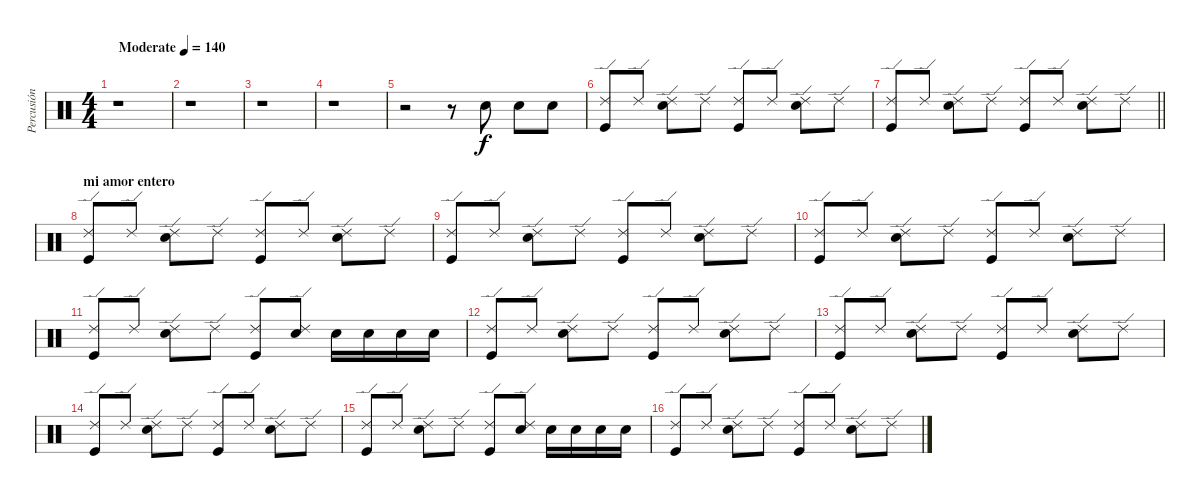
\track ("Percusión" "Percusión") {instrument percussion}
\staff {score}
\articulation defaults
\ts (4 4)
\tempo (140 "Moderate")
\clef neutral
\ks c
r.1{dy f} |
r.1 |
r.1 |
r.1 |
r.2 r.8 "Snare (hit) 2".8 "Snare (hit) 2".8 "Snare (hit) 2".8 |
("Ride (edge) 2" "Kick (hit)").8 "Ride (edge) 2".8 ("Ride (edge) 2" "Snare (hit) 2").8 "Ride (edge) 2".8 ("Ride (edge) 2" "Kick (hit)").8 "Ride (edge) 2".8 ("Ride (edge) 2" "Snare (hit) 2").8 "Ride (edge) 2".8 |
\barLineRight lightlight
("Ride (edge) 2" "Kick (hit)").8 "Ride (edge) 2".8 ("Ride (edge) 2" "Snare (hit) 2").8 "Ride (edge) 2".8 ("Ride (edge) 2" "Kick (hit)").8 "Ride (edge) 2".8 ("Ride (edge) 2" "Snare (hit) 2").8 "Ride (edge) 2".8 |
\section ("" "mi amor entero")
("Ride (edge) 2" "Kick (hit)").8 "Ride (edge) 2".8 ("Ride (edge) 2" "Snare (hit) 2").8 "Ride (edge) 2".8 ("Ride (edge) 2" "Kick (hit)").8 "Ride (edge) 2".8 ("Ride (edge) 2" "Snare (hit) 2").8 "Ride (edge) 2".8 |
("Ride (edge) 2" "Kick (hit)").8 "Ride (edge) 2".8 ("Ride (edge) 2" "Snare (hit) 2").8 "Ride (edge) 2".8 ("Ride (edge) 2" "Kick (hit)").8 "Ride (edge) 2".8 ("Ride (edge) 2" "Snare (hit) 2").8 "Ride (edge) 2".8 |
("Ride (edge) 2" "Kick (hit)").8 "Ride (edge) 2".8 ("Ride (edge) 2" "Snare (hit) 2").8 "Ride (edge) 2".8 ("Ride (edge) 2" "Kick (hit)").8 "Ride (edge) 2".8 ("Ride (edge) 2" "Snare (hit) 2").8 "Ride (edge) 2".8 |
("Ride (edge) 2" "Kick (hit)").8 "Ride (edge) 2".8 ("Ride (edge) 2" "Snare (hit) 2").8 "Ride (edge) 2".8 ("Ride (edge) 2" "Kick (hit)").8 ("Ride (edge) 2" "Snare (hit) 2").8 "Snare (hit) 2".16 "Snare (hit) 2".16 "Snare (hit) 2".16 "Snare (hit) 2".16 |
("Ride (edge) 2" "Kick (hit)").8 "Ride (edge) 2".8 ("Ride (edge) 2" "Snare (hit) 2").8 "Ride (edge) 2".8 ("Ride (edge) 2" "Kick (hit)").8 "Ride (edge) 2".8 ("Ride (edge) 2" "Snare (hit) 2").8 "Ride (edge) 2".8 |
("Ride (edge) 2" "Kick (hit)").8 "Ride (edge) 2".8 ("Ride (edge) 2" "Snare (hit) 2").8 "Ride (edge) 2".8 ("Ride (edge) 2" "Kick (hit)").8 "Ride (edge) 2".8 ("Ride (edge) 2" "Snare (hit) 2").8 "Ride (edge) 2".8 |
("Ride (edge) 2" "Kick (hit)").8 "Ride (edge) 2".8 ("Ride (edge) 2" "Snare (hit) 2").8 "Ride (edge) 2".8 ("Ride (edge) 2" "Kick (hit)").8 "Ride (edge) 2".8 ("Ride (edge) 2" "Snare (hit) 2").8 "Ride (edge) 2".8 |
("Ride (edge) 2" "Kick (hit)").8 "Ride (edge) 2".8 ("Ride (edge) 2" "Snare (hit) 2").8 "Ride (edge) 2".8 ("Ride (edge) 2" "Kick (hit)").8 ("Ride (edge) 2" "Snare (hit) 2").8 "Snare (hit) 2".16 "Snare (hit) 2".16 "Snare (hit) 2".16 "Snare (hit) 2".16 |
("Ride (edge) 2" "Kick (hit)").8 "Ride (edge) 2".8 ("Ride (edge) 2" "Snare (hit) 2").8 "Ride (edge) 2".8 ("Ride (edge) 2" "Kick (hit)").8 "Ride (edge) 2".8 ("Ride (edge) 2" "Snare (hit) 2").8 "Ride (edge) 2".8
